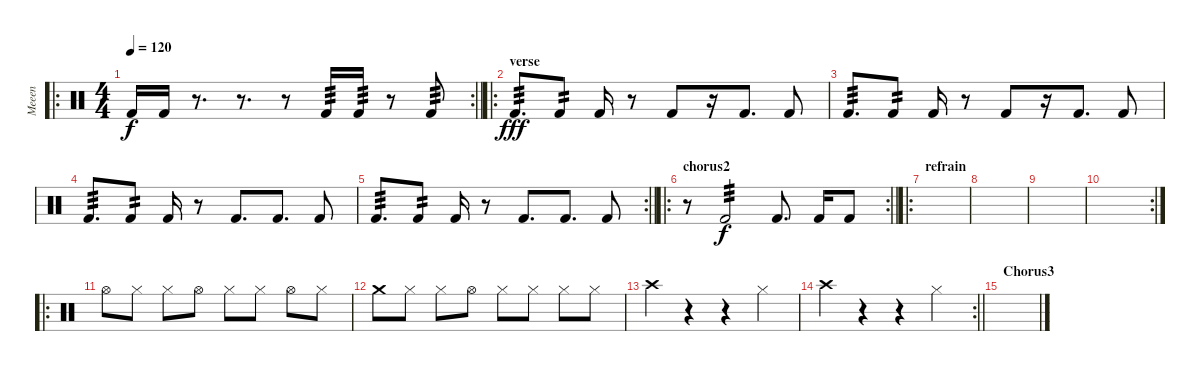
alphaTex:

\track ("Meeen" "Meeen") {instrument percussion}
\staff {score}
\articulation defaults
\ro
\rc 2
\ts (4 4)
\tempo 120
\clef neutral
\barLineRight lightlight
\ks c "Kick (hit) 2".16{dy f} "Kick (hit) 2".16
r.8{d} r.8{d} r.8 "Kick (hit) 2".16{tp 3} "Kick (hit) 2".16{tp 3} r.8 "Kick (hit) 2".8{tp 3} |
\ro
\section ("" "verse")
"Kick (hit) 2".8{d tp 3 dy fff} "Kick (hit) 2".8{tp 2} "Kick (hit) 2".16 r.8 "Kick (hit) 2".8 r.16 "Kick (hit) 2".8{d} "Kick (hit) 2".8 |
"Kick (hit) 2".8{d tp 3} "Kick (hit) 2".8{tp 2} "Kick (hit) 2".16 r.8 "Kick (hit) 2".8 r.16 "Kick (hit) 2".8{d} "Kick (hit) 2".8 |
"Kick (hit) 2".8{d tp 3} "Kick (hit) 2".8{tp 2} "Kick (hit) 2".16 r.8 "Kick (hit) 2".8{d} "Kick (hit) 2".8{d} "Kick (hit) 2".8 |
\rc 2
\barLineRight lightlight "Kick (hit) 2".8{d tp 3} "Kick (hit) 2".8{tp 2} "Kick (hit) 2".16
r.8 "Kick (hit) 2".8{d} "Kick (hit) 2".8{d} "Kick (hit) 2".8 |
\ro
\rc 2
\section ("" "chorus2")
\barLineRight lightlight
r.8 "Kick (hit) 2".2{tp 3 dy f} "Kick (hit) 2".8{d} "Kick (hit) 2".16 "Kick (hit) 2".8 |
\ro
\section ("" "refrain")
|
|
|
\rc 2
|
\ro "Hi-Hat (open)".8 "Hi-Hat (closed)".8 "Hi-Hat (closed)".8 "Hi-Hat (open)".8 "Hi-Hat (closed)".8 "Hi-Hat (closed)".8 "Hi-Hat (open)".8 "Hi-Hat (closed)".8
|
"Crash medium (hit)".8 "Hi-Hat (closed)".8 "Hi-Hat (closed)".8 "Hi-Hat (open)".8 "Hi-Hat (closed)".8 "Hi-Hat (closed)".8 "Hi-Hat (closed)".8 "Hi-Hat (closed)".8 |
"Crash high (hit)".4 r.4 r.4 "Hi-Hat (closed)".4 |
\rc 2
\barLineRight lightlight "Crash high (hit)".4
r.4 r.4 "Hi-Hat (closed)".4 |
\section ("" "Chorus3")
